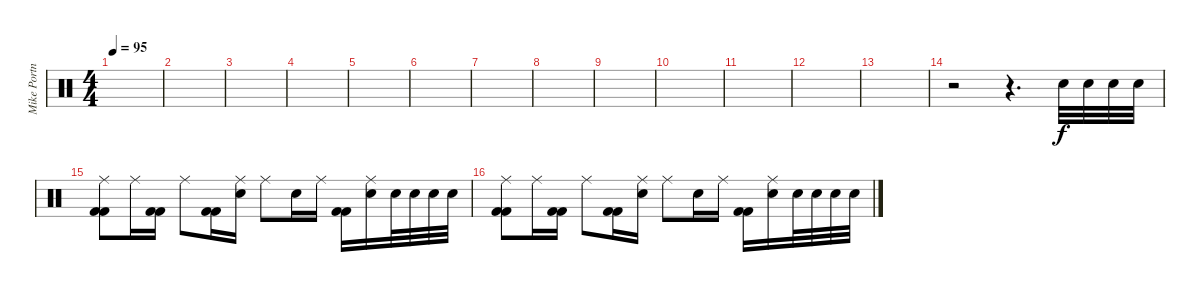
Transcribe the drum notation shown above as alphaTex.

\track ("Mike Portnoy" "Mike Portn") {instrument percussion}
\staff {score}
\articulation defaults
\ts (4 4)
\tempo 95
\clef neutral
\ks c
|
|
|
|
|
|
|
|
|
|
|
|
|
r.2 r.4{d} "Snare (hit) 2".32 "Snare (hit) 2".32 "Snare (hit) 2".32 "Snare (hit) 2".32 |
("Ride (middle)" "Kick (hit) 2" "Kick (hit) 2").8 "Ride (middle)".16 ("Kick (hit) 2" "Kick (hit) 2").16 "Ride (middle)".8 ("Kick (hit) 2" "Kick (hit) 2").16 ("Ride (middle)" "Snare (hit) 2").16 "Ride (middle)".8 "Snare (hit) 2".16 "Ride (middle)".16 ("Kick (hit) 2" "Kick (hit) 2").16 ("Ride (middle)" "Snare (hit) 2").16 "Snare (hit) 2".32 "Snare (hit) 2".32 "Snare (hit) 2".32 "Snare (hit) 2".32 |
("Ride (middle)" "Kick (hit) 2" "Kick (hit) 2").8 "Ride (middle)".16 ("Kick (hit) 2" "Kick (hit) 2").16 "Ride (middle)".8 ("Kick (hit) 2" "Kick (hit) 2").16 ("Ride (middle)" "Snare (hit) 2").16 "Ride (middle)".8 "Snare (hit) 2".16 "Ride (middle)".16 ("Kick (hit) 2" "Kick (hit) 2").16 ("Ride (middle)" "Snare (hit) 2").16 "Snare (hit) 2".32 "Snare (hit) 2".32 "Snare (hit) 2".32 "Snare (hit) 2".32
